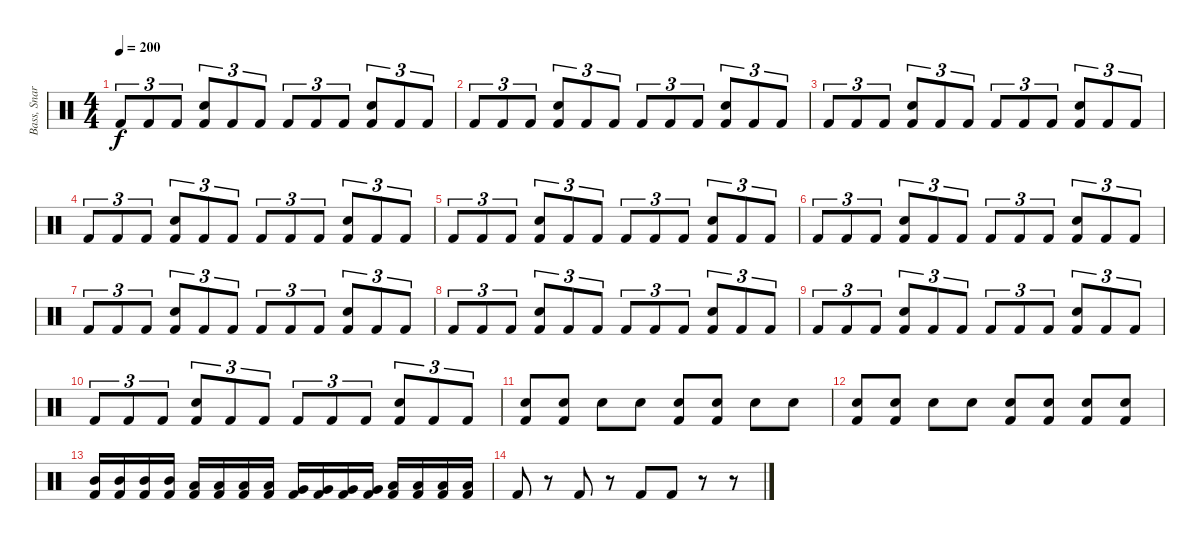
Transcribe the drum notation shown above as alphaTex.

\track ("Bass, Snare & Toms" "Bass, Snar") {instrument percussion}
\staff {score}
\articulation defaults
\ts (4 4)
\tempo 200
\clef neutral
\ks c "Kick (hit) 2".8{tu (3 2) dy f} "Kick (hit) 2".8{tu (3 2)} "Kick (hit) 2".8{tu (3 2)}
("Electric Snare (hit)" "Kick (hit) 2").8{tu (3 2)} "Kick (hit) 2".8{tu (3 2)} "Kick (hit) 2".8{tu (3 2)} "Kick (hit) 2".8{tu (3 2)} "Kick (hit) 2".8{tu (3 2)} "Kick (hit) 2".8{tu (3 2)} ("Electric Snare (hit)" "Kick (hit) 2").8{tu (3 2)} "Kick (hit) 2".8{tu (3 2)} "Kick (hit) 2".8{tu (3 2)} |
"Kick (hit) 2".8{tu (3 2)} "Kick (hit) 2".8{tu (3 2)} "Kick (hit) 2".8{tu (3 2)} ("Electric Snare (hit)" "Kick (hit) 2").8{tu (3 2)} "Kick (hit) 2".8{tu (3 2)} "Kick (hit) 2".8{tu (3 2)} "Kick (hit) 2".8{tu (3 2)} "Kick (hit) 2".8{tu (3 2)} "Kick (hit) 2".8{tu (3 2)} ("Electric Snare (hit)" "Kick (hit) 2").8{tu (3 2)} "Kick (hit) 2".8{tu (3 2)} "Kick (hit) 2".8{tu (3 2)} |
"Kick (hit) 2".8{tu (3 2)} "Kick (hit) 2".8{tu (3 2)} "Kick (hit) 2".8{tu (3 2)} ("Electric Snare (hit)" "Kick (hit) 2").8{tu (3 2)} "Kick (hit) 2".8{tu (3 2)} "Kick (hit) 2".8{tu (3 2)} "Kick (hit) 2".8{tu (3 2)} "Kick (hit) 2".8{tu (3 2)} "Kick (hit) 2".8{tu (3 2)} ("Electric Snare (hit)" "Kick (hit) 2").8{tu (3 2)} "Kick (hit) 2".8{tu (3 2)} "Kick (hit) 2".8{tu (3 2)} |
"Kick (hit) 2".8{tu (3 2)} "Kick (hit) 2".8{tu (3 2)} "Kick (hit) 2".8{tu (3 2)} ("Electric Snare (hit)" "Kick (hit) 2").8{tu (3 2)} "Kick (hit) 2".8{tu (3 2)} "Kick (hit) 2".8{tu (3 2)} "Kick (hit) 2".8{tu (3 2)} "Kick (hit) 2".8{tu (3 2)} "Kick (hit) 2".8{tu (3 2)} ("Electric Snare (hit)" "Kick (hit) 2").8{tu (3 2)} "Kick (hit) 2".8{tu (3 2)} "Kick (hit) 2".8{tu (3 2)} |
"Kick (hit) 2".8{tu (3 2)} "Kick (hit) 2".8{tu (3 2)} "Kick (hit) 2".8{tu (3 2)} ("Electric Snare (hit)" "Kick (hit) 2").8{tu (3 2)} "Kick (hit) 2".8{tu (3 2)} "Kick (hit) 2".8{tu (3 2)} "Kick (hit) 2".8{tu (3 2)} "Kick (hit) 2".8{tu (3 2)} "Kick (hit) 2".8{tu (3 2)} ("Electric Snare (hit)" "Kick (hit) 2").8{tu (3 2)} "Kick (hit) 2".8{tu (3 2)} "Kick (hit) 2".8{tu (3 2)} |
"Kick (hit) 2".8{tu (3 2)} "Kick (hit) 2".8{tu (3 2)} "Kick (hit) 2".8{tu (3 2)} ("Electric Snare (hit)" "Kick (hit) 2").8{tu (3 2)} "Kick (hit) 2".8{tu (3 2)} "Kick (hit) 2".8{tu (3 2)} "Kick (hit) 2".8{tu (3 2)} "Kick (hit) 2".8{tu (3 2)} "Kick (hit) 2".8{tu (3 2)} ("Electric Snare (hit)" "Kick (hit) 2").8{tu (3 2)} "Kick (hit) 2".8{tu (3 2)} "Kick (hit) 2".8{tu (3 2)} |
"Kick (hit) 2".8{tu (3 2)} "Kick (hit) 2".8{tu (3 2)} "Kick (hit) 2".8{tu (3 2)} ("Electric Snare (hit)" "Kick (hit) 2").8{tu (3 2)} "Kick (hit) 2".8{tu (3 2)} "Kick (hit) 2".8{tu (3 2)} "Kick (hit) 2".8{tu (3 2)} "Kick (hit) 2".8{tu (3 2)} "Kick (hit) 2".8{tu (3 2)} ("Electric Snare (hit)" "Kick (hit) 2").8{tu (3 2)} "Kick (hit) 2".8{tu (3 2)} "Kick (hit) 2".8{tu (3 2)} |
"Kick (hit) 2".8{tu (3 2)} "Kick (hit) 2".8{tu (3 2)} "Kick (hit) 2".8{tu (3 2)} ("Electric Snare (hit)" "Kick (hit) 2").8{tu (3 2)} "Kick (hit) 2".8{tu (3 2)} "Kick (hit) 2".8{tu (3 2)} "Kick (hit) 2".8{tu (3 2)} "Kick (hit) 2".8{tu (3 2)} "Kick (hit) 2".8{tu (3 2)} ("Electric Snare (hit)" "Kick (hit) 2").8{tu (3 2)} "Kick (hit) 2".8{tu (3 2)} "Kick (hit) 2".8{tu (3 2)} |
"Kick (hit) 2".8{tu (3 2)} "Kick (hit) 2".8{tu (3 2)} "Kick (hit) 2".8{tu (3 2)} ("Electric Snare (hit)" "Kick (hit) 2").8{tu (3 2)} "Kick (hit) 2".8{tu (3 2)} "Kick (hit) 2".8{tu (3 2)} "Kick (hit) 2".8{tu (3 2)} "Kick (hit) 2".8{tu (3 2)} "Kick (hit) 2".8{tu (3 2)} ("Electric Snare (hit)" "Kick (hit) 2").8{tu (3 2)} "Kick (hit) 2".8{tu (3 2)} "Kick (hit) 2".8{tu (3 2)} |
"Kick (hit) 2".8{tu (3 2)} "Kick (hit) 2".8{tu (3 2)} "Kick (hit) 2".8{tu (3 2)} ("Electric Snare (hit)" "Kick (hit) 2").8{tu (3 2)} "Kick (hit) 2".8{tu (3 2)} "Kick (hit) 2".8{tu (3 2)} "Kick (hit) 2".8{tu (3 2)} "Kick (hit) 2".8{tu (3 2)} "Kick (hit) 2".8{tu (3 2)} ("Electric Snare (hit)" "Kick (hit) 2").8{tu (3 2)} "Kick (hit) 2".8{tu (3 2)} "Kick (hit) 2".8{tu (3 2)} |
("Electric Snare (hit)" "Kick (hit) 2").8 ("Electric Snare (hit)" "Kick (hit) 2").8 "Electric Snare (hit)".8 "Electric Snare (hit)".8 ("Electric Snare (hit)" "Kick (hit) 2").8 ("Electric Snare (hit)" "Kick (hit) 2").8 "Electric Snare (hit)".8 "Electric Snare (hit)".8 |
("Electric Snare (hit)" "Kick (hit) 2").8 ("Electric Snare (hit)" "Kick (hit) 2").8 "Electric Snare (hit)".8 "Electric Snare (hit)".8 ("Electric Snare (hit)" "Kick (hit) 2").8 ("Electric Snare (hit)" "Kick (hit) 2").8 ("Electric Snare (hit)" "Kick (hit) 2").8 ("Electric Snare (hit)" "Kick (hit) 2").8 |
("Mid Tom (hit)" "Kick (hit) 2").16 ("Mid Tom (hit)" "Kick (hit) 2").16 ("Mid Tom (hit)" "Kick (hit) 2").16 ("Mid Tom (hit)" "Kick (hit) 2").16 ("Low Tom (hit)" "Kick (hit) 2").16 ("Low Tom (hit)" "Kick (hit) 2").16 ("Low Tom (hit)" "Kick (hit) 2").16 ("Low Tom (hit)" "Kick (hit) 2").16 ("Very Low Tom (hit)" "Kick (hit) 2").16 ("Very Low Tom (hit)" "Kick (hit) 2").16 ("Very Low Tom (hit)" "Kick (hit) 2").16 ("Very Low Tom (hit)" "Kick (hit) 2").16 ("Low Floor Tom (hit)" "Kick (hit) 2").16 ("Low Floor Tom (hit)" "Kick (hit) 2").16 ("Low Floor Tom (hit)" "Kick (hit) 2").16 ("Low Floor Tom (hit)" "Kick (hit) 2").16 |
"Kick (hit) 2".8 r.8 "Kick (hit) 2".8 r.8 "Kick (hit) 2".8 "Kick (hit) 2".8 r.8 r.8
